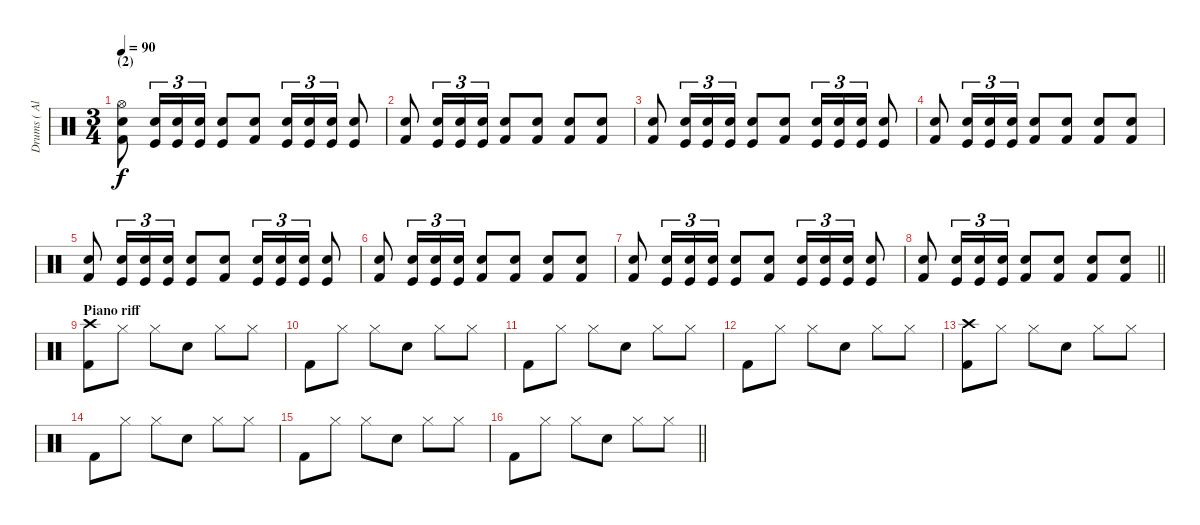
\track ("Drums ( Alex Holzwarth)" "Drums ( Al") {instrument percussion}
\staff {score}
\articulation defaults
\ts (3 4)
\section ("" "(2)")
\tempo 90
\clef neutral
\ks c
("Hi-Hat (open)" "Electric Snare (hit)" "Kick (hit) 2").8{dy f} ("Electric Snare (hit)" "Kick (hit)").16{tu (3 2)} ("Electric Snare (hit)" "Kick (hit)").16{tu (3 2)} ("Electric Snare (hit)" "Kick (hit)").16{tu (3 2)} ("Electric Snare (hit)" "Kick (hit)").8 ("Electric Snare (hit)" "Kick (hit) 2").8 ("Electric Snare (hit)" "Kick (hit)").16{tu (3 2)} ("Electric Snare (hit)" "Kick (hit)").16{tu (3 2)} ("Electric Snare (hit)" "Kick (hit)").16{tu (3 2)} ("Electric Snare (hit)" "Kick (hit)").8 |
("Electric Snare (hit)" "Kick (hit) 2").8 ("Electric Snare (hit)" "Kick (hit)").16{tu (3 2)} ("Electric Snare (hit)" "Kick (hit)").16{tu (3 2)} ("Electric Snare (hit)" "Kick (hit)").16{tu (3 2)} ("Electric Snare (hit)" "Kick (hit) 2").8 ("Electric Snare (hit)" "Kick (hit) 2").8 ("Electric Snare (hit)" "Kick (hit) 2").8 ("Electric Snare (hit)" "Kick (hit) 2").8 |
("Electric Snare (hit)" "Kick (hit) 2").8 ("Electric Snare (hit)" "Kick (hit)").16{tu (3 2)} ("Electric Snare (hit)" "Kick (hit)").16{tu (3 2)} ("Electric Snare (hit)" "Kick (hit)").16{tu (3 2)} ("Electric Snare (hit)" "Kick (hit)").8 ("Electric Snare (hit)" "Kick (hit) 2").8 ("Electric Snare (hit)" "Kick (hit)").16{tu (3 2)} ("Electric Snare (hit)" "Kick (hit)").16{tu (3 2)} ("Electric Snare (hit)" "Kick (hit)").16{tu (3 2)} ("Electric Snare (hit)" "Kick (hit)").8 |
("Electric Snare (hit)" "Kick (hit) 2").8 ("Electric Snare (hit)" "Kick (hit)").16{tu (3 2)} ("Electric Snare (hit)" "Kick (hit)").16{tu (3 2)} ("Electric Snare (hit)" "Kick (hit)").16{tu (3 2)} ("Electric Snare (hit)" "Kick (hit) 2").8 ("Electric Snare (hit)" "Kick (hit) 2").8 ("Electric Snare (hit)" "Kick (hit) 2").8 ("Electric Snare (hit)" "Kick (hit) 2").8 |
("Electric Snare (hit)" "Kick (hit) 2").8 ("Electric Snare (hit)" "Kick (hit)").16{tu (3 2)} ("Electric Snare (hit)" "Kick (hit)").16{tu (3 2)} ("Electric Snare (hit)" "Kick (hit)").16{tu (3 2)} ("Electric Snare (hit)" "Kick (hit)").8 ("Electric Snare (hit)" "Kick (hit) 2").8 ("Electric Snare (hit)" "Kick (hit)").16{tu (3 2)} ("Electric Snare (hit)" "Kick (hit)").16{tu (3 2)} ("Electric Snare (hit)" "Kick (hit)").16{tu (3 2)} ("Electric Snare (hit)" "Kick (hit)").8 |
("Electric Snare (hit)" "Kick (hit) 2").8 ("Electric Snare (hit)" "Kick (hit)").16{tu (3 2)} ("Electric Snare (hit)" "Kick (hit)").16{tu (3 2)} ("Electric Snare (hit)" "Kick (hit)").16{tu (3 2)} ("Electric Snare (hit)" "Kick (hit) 2").8 ("Electric Snare (hit)" "Kick (hit) 2").8 ("Electric Snare (hit)" "Kick (hit) 2").8 ("Electric Snare (hit)" "Kick (hit) 2").8 |
("Electric Snare (hit)" "Kick (hit) 2").8 ("Electric Snare (hit)" "Kick (hit)").16{tu (3 2)} ("Electric Snare (hit)" "Kick (hit)").16{tu (3 2)} ("Electric Snare (hit)" "Kick (hit)").16{tu (3 2)} ("Electric Snare (hit)" "Kick (hit)").8 ("Electric Snare (hit)" "Kick (hit) 2").8 ("Electric Snare (hit)" "Kick (hit)").16{tu (3 2)} ("Electric Snare (hit)" "Kick (hit)").16{tu (3 2)} ("Electric Snare (hit)" "Kick (hit)").16{tu (3 2)} ("Electric Snare (hit)" "Kick (hit)").8 |
\barLineRight lightlight
("Electric Snare (hit)" "Kick (hit) 2").8 ("Electric Snare (hit)" "Kick (hit)").16{tu (3 2)} ("Electric Snare (hit)" "Kick (hit)").16{tu (3 2)} ("Electric Snare (hit)" "Kick (hit)").16{tu (3 2)} ("Electric Snare (hit)" "Kick (hit) 2").8 ("Electric Snare (hit)" "Kick (hit) 2").8 ("Electric Snare (hit)" "Kick (hit) 2").8 ("Electric Snare (hit)" "Kick (hit) 2").8 |
\section ("" "Piano riff")
("Crash high (hit)" "Kick (hit) 2").8 "Hi-Hat (closed)".8 "Hi-Hat (closed)".8 "Snare (hit) 2".8 "Hi-Hat (closed)".8 "Hi-Hat (closed)".8 |
"Kick (hit) 2".8 "Hi-Hat (closed)".8 "Hi-Hat (closed)".8 "Snare (hit) 2".8 "Hi-Hat (closed)".8 "Hi-Hat (closed)".8 |
"Kick (hit) 2".8 "Hi-Hat (closed)".8 "Hi-Hat (closed)".8 "Snare (hit) 2".8 "Hi-Hat (closed)".8 "Hi-Hat (closed)".8 |
"Kick (hit) 2".8 "Hi-Hat (closed)".8 "Hi-Hat (closed)".8 "Snare (hit) 2".8 "Hi-Hat (closed)".8 "Hi-Hat (closed)".8 |
("Crash high (hit)" "Kick (hit) 2").8 "Hi-Hat (closed)".8 "Hi-Hat (closed)".8 "Snare (hit) 2".8 "Hi-Hat (closed)".8 "Hi-Hat (closed)".8 |
"Kick (hit) 2".8 "Hi-Hat (closed)".8 "Hi-Hat (closed)".8 "Snare (hit) 2".8 "Hi-Hat (closed)".8 "Hi-Hat (closed)".8 |
"Kick (hit) 2".8 "Hi-Hat (closed)".8 "Hi-Hat (closed)".8 "Snare (hit) 2".8 "Hi-Hat (closed)".8 "Hi-Hat (closed)".8 |
\barLineRight lightlight "Kick (hit) 2".8 "Hi-Hat (closed)".8 "Hi-Hat (closed)".8 "Snare (hit) 2".8 "Hi-Hat (closed)".8 "Hi-Hat (closed)".8
